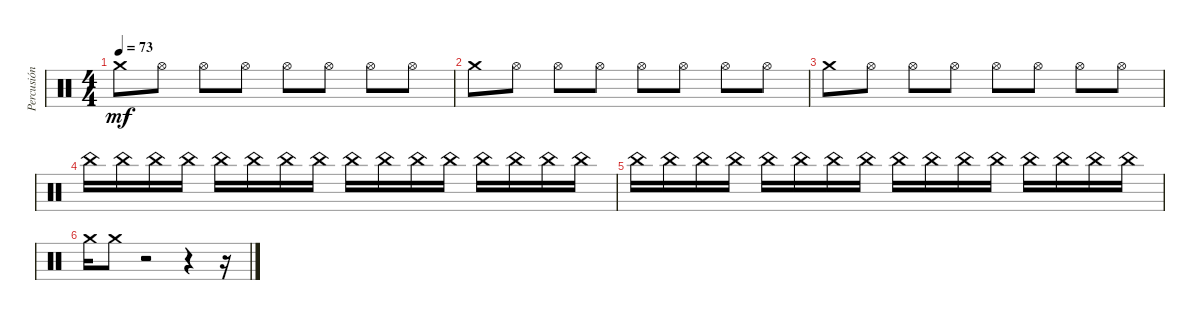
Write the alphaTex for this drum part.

\track ("Percusión" "Percusión") {instrument percussion}
\staff {score}
\articulation defaults
\ts (4 4)
\tempo 73
\clef neutral
\ks c "Crash medium (hit)".8{dy mf} "Hi-Hat (open)".8 "Hi-Hat (open)".8 "Hi-Hat (open)".8 "Hi-Hat (open)".8 "Hi-Hat (open)".8 "Hi-Hat (open)".8 "Hi-Hat (open)".8
|
"Crash medium (hit)".8 "Hi-Hat (open)".8 "Hi-Hat (open)".8 "Hi-Hat (open)".8 "Hi-Hat (open)".8 "Hi-Hat (open)".8 "Hi-Hat (open)".8 "Hi-Hat (open)".8 |
"Crash medium (hit)".8 "Hi-Hat (open)".8 "Hi-Hat (open)".8 "Hi-Hat (open)".8 "Hi-Hat (open)".8 "Hi-Hat (open)".8 "Hi-Hat (open)".8 "Hi-Hat (open)".8 |
"China (hit)".16 "China (hit)".16 "China (hit)".16 "China (hit)".16 "China (hit)".16 "China (hit)".16 "China (hit)".16 "China (hit)".16 "China (hit)".16 "China (hit)".16 "China (hit)".16 "China (hit)".16 "China (hit)".16 "China (hit)".16 "China (hit)".16 "China (hit)".16 |
"China (hit)".16 "China (hit)".16 "China (hit)".16 "China (hit)".16 "China (hit)".16 "China (hit)".16 "China (hit)".16 "China (hit)".16 "China (hit)".16 "China (hit)".16 "China (hit)".16 "China (hit)".16 "China (hit)".16 "China (hit)".16 "China (hit)".16 "China (hit)".16 |
"Crash medium (hit)".16 "Crash medium (hit)".8 r.2 r.4 r.16
